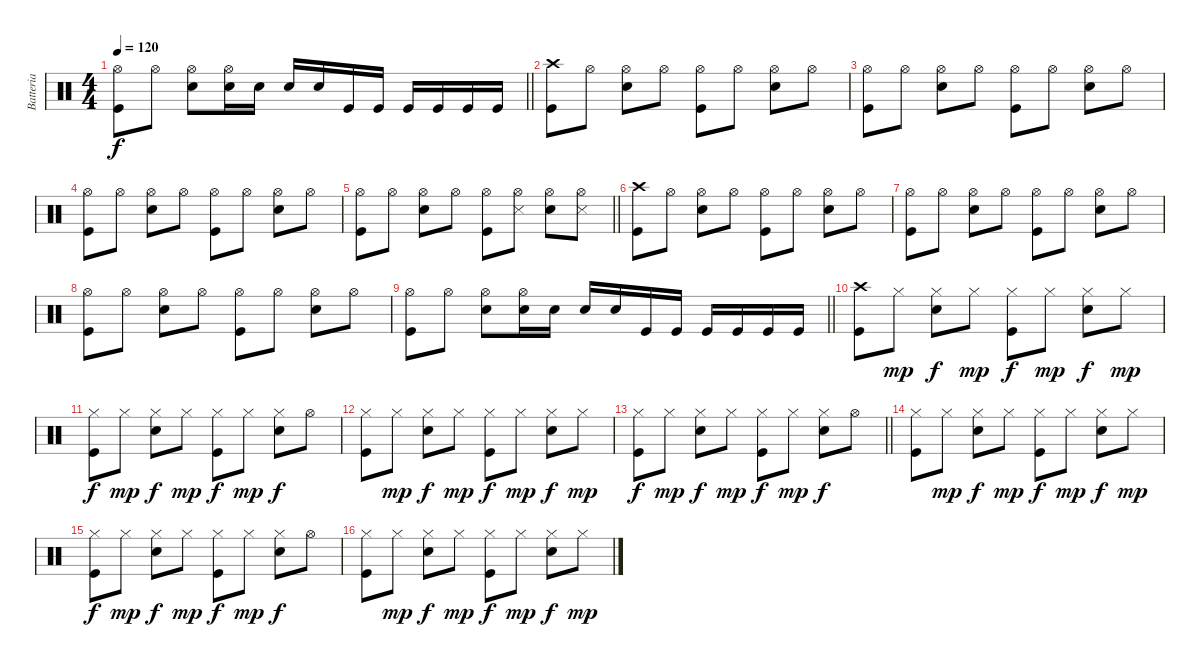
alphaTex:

\track ("Batteria" "Batteria") {instrument percussion}
\staff {score}
\articulation defaults
\ts (4 4)
\tempo 120
\clef neutral
\barLineRight lightlight
\ks c
("Kick (hit)" "Hi-Hat (open)").8{dy f} "Hi-Hat (open)".8 ("Snare (hit) 2" "Hi-Hat (open)").8 ("Snare (hit) 2" "Hi-Hat (open)").16 "Snare (hit) 2".16 "Snare (hit) 2".16 "Snare (hit) 2".16 "Kick (hit)".16 "Kick (hit)".16 "Kick (hit)".16 "Kick (hit)".16 "Kick (hit)".16 "Kick (hit)".16 |
("Kick (hit)" "Crash high (hit)").8 "Hi-Hat (open)".8 ("Snare (hit) 2" "Hi-Hat (open)").8 "Hi-Hat (open)".8 ("Kick (hit)" "Hi-Hat (open)").8 "Hi-Hat (open)".8 ("Snare (hit) 2" "Hi-Hat (open)").8 "Hi-Hat (open)".8 |
("Kick (hit)" "Hi-Hat (open)").8 "Hi-Hat (open)".8 ("Snare (hit) 2" "Hi-Hat (open)").8 "Hi-Hat (open)".8 ("Kick (hit)" "Hi-Hat (open)").8 "Hi-Hat (open)".8 ("Snare (hit) 2" "Hi-Hat (open)").8 "Hi-Hat (open)".8 |
("Kick (hit)" "Hi-Hat (open)").8 "Hi-Hat (open)".8 ("Snare (hit) 2" "Hi-Hat (open)").8 "Hi-Hat (open)".8 ("Kick (hit)" "Hi-Hat (open)").8 "Hi-Hat (open)".8 ("Snare (hit) 2" "Hi-Hat (open)").8 "Hi-Hat (open)".8 |
\barLineRight lightlight
("Kick (hit)" "Hi-Hat (open)").8 "Hi-Hat (open)".8 ("Snare (hit) 2" "Hi-Hat (open)").8 "Hi-Hat (open)".8 ("Kick (hit)" "Hi-Hat (open)").8 ("Hi-Hat (open)" "Snare (side stick) 3").8 ("Snare (hit) 2" "Hi-Hat (open)").8 ("Hi-Hat (open)" "Snare (side stick) 3").8 |
("Kick (hit)" "Crash high (hit)").8 "Hi-Hat (open)".8 ("Snare (hit) 2" "Hi-Hat (open)").8 "Hi-Hat (open)".8 ("Kick (hit)" "Hi-Hat (open)").8 "Hi-Hat (open)".8 ("Snare (hit) 2" "Hi-Hat (open)").8 "Hi-Hat (open)".8 |
("Kick (hit)" "Hi-Hat (open)").8 "Hi-Hat (open)".8 ("Snare (hit) 2" "Hi-Hat (open)").8 "Hi-Hat (open)".8 ("Kick (hit)" "Hi-Hat (open)").8 "Hi-Hat (open)".8 ("Snare (hit) 2" "Hi-Hat (open)").8 "Hi-Hat (open)".8 |
("Kick (hit)" "Hi-Hat (open)").8 "Hi-Hat (open)".8 ("Snare (hit) 2" "Hi-Hat (open)").8 "Hi-Hat (open)".8 ("Kick (hit)" "Hi-Hat (open)").8 "Hi-Hat (open)".8 ("Snare (hit) 2" "Hi-Hat (open)").8 "Hi-Hat (open)".8 |
\barLineRight lightlight
("Kick (hit)" "Hi-Hat (open)").8 "Hi-Hat (open)".8 ("Snare (hit) 2" "Hi-Hat (open)").8 ("Snare (hit) 2" "Hi-Hat (open)").16 "Snare (hit) 2".16 "Snare (hit) 2".16 "Snare (hit) 2".16 "Kick (hit)".16 "Kick (hit)".16 "Kick (hit)".16 "Kick (hit)".16 "Kick (hit)".16 "Kick (hit)".16 |
("Kick (hit)" "Crash high (hit)").8 "Hi-Hat (closed)".8{dy mp} ("Snare (hit) 2" "Hi-Hat (closed)").8{dy f} "Hi-Hat (closed)".8{dy mp} ("Kick (hit)" "Hi-Hat (closed)").8{dy f} "Hi-Hat (closed)".8{dy mp} ("Snare (hit) 2" "Hi-Hat (closed)").8{dy f} "Hi-Hat (closed)".8{dy mp} |
("Kick (hit)" "Hi-Hat (closed)").8{dy f} "Hi-Hat (closed)".8{dy mp} ("Snare (hit) 2" "Hi-Hat (closed)").8{dy f} "Hi-Hat (closed)".8{dy mp} ("Kick (hit)" "Hi-Hat (closed)").8{dy f} "Hi-Hat (closed)".8{dy mp} ("Snare (hit) 2" "Hi-Hat (closed)").8{dy f} "Hi-Hat (open)".8 |
("Kick (hit)" "Hi-Hat (closed)").8 "Hi-Hat (closed)".8{dy mp} ("Snare (hit) 2" "Hi-Hat (closed)").8{dy f} "Hi-Hat (closed)".8{dy mp} ("Kick (hit)" "Hi-Hat (closed)").8{dy f} "Hi-Hat (closed)".8{dy mp} ("Snare (hit) 2" "Hi-Hat (closed)").8{dy f} "Hi-Hat (closed)".8{dy mp} |
\barLineRight lightlight
("Kick (hit)" "Hi-Hat (closed)").8{dy f} "Hi-Hat (closed)".8{dy mp} ("Snare (hit) 2" "Hi-Hat (closed)").8{dy f} "Hi-Hat (closed)".8{dy mp} ("Kick (hit)" "Hi-Hat (closed)").8{dy f} "Hi-Hat (closed)".8{dy mp} ("Snare (hit) 2" "Hi-Hat (closed)").8{dy f} "Hi-Hat (open)".8 |
("Kick (hit)" "Hi-Hat (closed)").8 "Hi-Hat (closed)".8{dy mp} ("Snare (hit) 2" "Hi-Hat (closed)").8{dy f} "Hi-Hat (closed)".8{dy mp} ("Kick (hit)" "Hi-Hat (closed)").8{dy f} "Hi-Hat (closed)".8{dy mp} ("Snare (hit) 2" "Hi-Hat (closed)").8{dy f} "Hi-Hat (closed)".8{dy mp} |
("Kick (hit)" "Hi-Hat (closed)").8{dy f} "Hi-Hat (closed)".8{dy mp} ("Snare (hit) 2" "Hi-Hat (closed)").8{dy f} "Hi-Hat (closed)".8{dy mp} ("Kick (hit)" "Hi-Hat (closed)").8{dy f} "Hi-Hat (closed)".8{dy mp} ("Snare (hit) 2" "Hi-Hat (closed)").8{dy f} "Hi-Hat (open)".8 |
("Kick (hit)" "Hi-Hat (closed)").8 "Hi-Hat (closed)".8{dy mp} ("Snare (hit) 2" "Hi-Hat (closed)").8{dy f} "Hi-Hat (closed)".8{dy mp} ("Kick (hit)" "Hi-Hat (closed)").8{dy f} "Hi-Hat (closed)".8{dy mp} ("Snare (hit) 2" "Hi-Hat (closed)").8{dy f} "Hi-Hat (closed)".8{dy mp}
